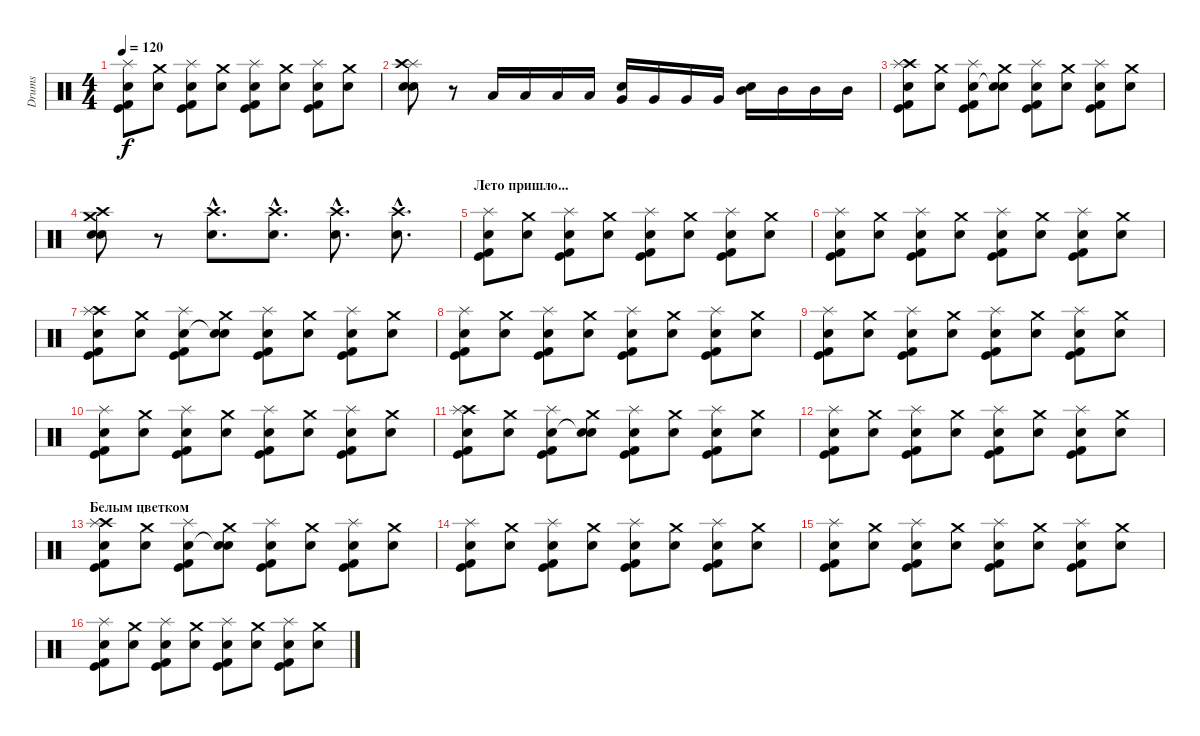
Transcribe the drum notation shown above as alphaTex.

\track ("Drums" "Drums") {instrument percussion}
\staff {score}
\articulation defaults
\ts (4 4)
\tempo 120
\clef neutral
\ks c
("Kick (hit)" "Electric Snare (hit)" "Kick (hit) 2" "Splash (hit)").8{dy f} ("Crash medium (hit)" "Snare (hit) 2").8 ("Kick (hit)" "Electric Snare (hit)" "Kick (hit) 2" "Splash (hit)").8 ("Crash medium (hit)" "Snare (hit) 2").8 ("Kick (hit)" "Electric Snare (hit)" "Kick (hit) 2" "Splash (hit)").8 ("Crash medium (hit)" "Snare (hit) 2").8 ("Kick (hit)" "Electric Snare (hit)" "Kick (hit) 2" "Splash (hit)").8 ("Crash medium (hit)" "Snare (hit) 2").8 |
("Splash (hit)" "Snare (hit) 2" "Electric Snare (hit)" "Crash high (hit)").8 r.8 "Low Floor Tom (hit)".16 "Low Floor Tom (hit)".16 "Low Floor Tom (hit)".16 "Low Floor Tom (hit)".16 ("Snare (hit) 2" "Very Low Tom (hit)").16 "Very Low Tom (hit)".16 "Very Low Tom (hit)".16 "Very Low Tom (hit)".16 ("Electric Snare (hit)" "Mid Tom (hit)").16 "Mid Tom (hit)".16 "Mid Tom (hit)".16 "Mid Tom (hit)".16 |
("Kick (hit)" "Crash high (hit)" "Electric Snare (hit)" "Kick (hit) 2" "Splash (hit)").8 ("Crash medium (hit)" "Snare (hit) 2").8 ("Kick (hit)" "Electric Snare (hit)" "Kick (hit) 2" "Splash (hit)").8 ("Crash medium (hit)" "Snare (hit)"{t} "Snare (hit) 2").8 ("Kick (hit)" "Electric Snare (hit)" "Kick (hit) 2" "Splash (hit)").8 ("Crash medium (hit)" "Snare (hit) 2").8 ("Kick (hit)" "Electric Snare (hit)" "Kick (hit) 2" "Splash (hit)").8 ("Crash medium (hit)" "Snare (hit) 2").8 |
("Crash medium (hit)" "Snare (hit) 2" "Electric Snare (hit)" "Crash high (hit)").8 r.8 ("Electric Snare (hit)"{hac} "Crash high (hit)"{hac}).8{d} ("Electric Snare (hit)"{hac} "Crash high (hit)"{hac}).8{d} ("Electric Snare (hit)"{hac} "Crash high (hit)"{hac}).8{d} ("Electric Snare (hit)"{hac} "Crash high (hit)"{hac}).8{d} |
\section ("" "Лето пришло...")
("Kick (hit)" "Electric Snare (hit)" "Kick (hit) 2" "Splash (hit)").8 ("Crash medium (hit)" "Snare (hit) 2").8 ("Kick (hit)" "Electric Snare (hit)" "Kick (hit) 2" "Splash (hit)").8 ("Crash medium (hit)" "Snare (hit) 2").8 ("Kick (hit)" "Electric Snare (hit)" "Kick (hit) 2" "Splash (hit)").8 ("Crash medium (hit)" "Snare (hit) 2").8 ("Kick (hit)" "Electric Snare (hit)" "Kick (hit) 2" "Splash (hit)").8 ("Crash medium (hit)" "Snare (hit) 2").8 |
("Kick (hit)" "Electric Snare (hit)" "Kick (hit) 2" "Splash (hit)").8 ("Crash medium (hit)" "Snare (hit) 2").8 ("Kick (hit)" "Electric Snare (hit)" "Kick (hit) 2" "Splash (hit)").8 ("Crash medium (hit)" "Snare (hit) 2").8 ("Kick (hit)" "Electric Snare (hit)" "Kick (hit) 2" "Splash (hit)").8 ("Crash medium (hit)" "Snare (hit) 2").8 ("Kick (hit)" "Electric Snare (hit)" "Kick (hit) 2" "Splash (hit)").8 ("Crash medium (hit)" "Snare (hit) 2").8 |
("Kick (hit)" "Crash high (hit)" "Electric Snare (hit)" "Kick (hit) 2" "Splash (hit)").8 ("Crash medium (hit)" "Snare (hit) 2").8 ("Kick (hit)" "Electric Snare (hit)" "Kick (hit) 2" "Splash (hit)").8 ("Crash medium (hit)" "Snare (hit)"{t} "Snare (hit) 2").8 ("Kick (hit)" "Electric Snare (hit)" "Kick (hit) 2" "Splash (hit)").8 ("Crash medium (hit)" "Snare (hit) 2").8 ("Kick (hit)" "Electric Snare (hit)" "Kick (hit) 2" "Splash (hit)").8 ("Crash medium (hit)" "Snare (hit) 2").8 |
("Kick (hit)" "Electric Snare (hit)" "Kick (hit) 2" "Splash (hit)").8 ("Crash medium (hit)" "Snare (hit) 2").8 ("Kick (hit)" "Electric Snare (hit)" "Kick (hit) 2" "Splash (hit)").8 ("Crash medium (hit)" "Snare (hit) 2").8 ("Kick (hit)" "Electric Snare (hit)" "Kick (hit) 2" "Splash (hit)").8 ("Crash medium (hit)" "Snare (hit) 2").8 ("Kick (hit)" "Electric Snare (hit)" "Kick (hit) 2" "Splash (hit)").8 ("Crash medium (hit)" "Snare (hit) 2").8 |
("Kick (hit)" "Electric Snare (hit)" "Kick (hit) 2" "Splash (hit)").8 ("Crash medium (hit)" "Snare (hit) 2").8 ("Kick (hit)" "Electric Snare (hit)" "Kick (hit) 2" "Splash (hit)").8 ("Crash medium (hit)" "Snare (hit) 2").8 ("Kick (hit)" "Electric Snare (hit)" "Kick (hit) 2" "Splash (hit)").8 ("Crash medium (hit)" "Snare (hit) 2").8 ("Kick (hit)" "Electric Snare (hit)" "Kick (hit) 2" "Splash (hit)").8 ("Crash medium (hit)" "Snare (hit) 2").8 |
("Kick (hit)" "Electric Snare (hit)" "Kick (hit) 2" "Splash (hit)").8 ("Crash medium (hit)" "Snare (hit) 2").8 ("Kick (hit)" "Electric Snare (hit)" "Kick (hit) 2" "Splash (hit)").8 ("Crash medium (hit)" "Snare (hit) 2").8 ("Kick (hit)" "Electric Snare (hit)" "Kick (hit) 2" "Splash (hit)").8 ("Crash medium (hit)" "Snare (hit) 2").8 ("Kick (hit)" "Electric Snare (hit)" "Kick (hit) 2" "Splash (hit)").8 ("Crash medium (hit)" "Snare (hit) 2").8 |
("Kick (hit)" "Crash high (hit)" "Electric Snare (hit)" "Kick (hit) 2" "Splash (hit)").8 ("Crash medium (hit)" "Snare (hit) 2").8 ("Kick (hit)" "Electric Snare (hit)" "Kick (hit) 2" "Splash (hit)").8 ("Crash medium (hit)" "Snare (hit)"{t} "Snare (hit) 2").8 ("Kick (hit)" "Electric Snare (hit)" "Kick (hit) 2" "Splash (hit)").8 ("Crash medium (hit)" "Snare (hit) 2").8 ("Kick (hit)" "Electric Snare (hit)" "Kick (hit) 2" "Splash (hit)").8 ("Crash medium (hit)" "Snare (hit) 2").8 |
("Kick (hit)" "Electric Snare (hit)" "Kick (hit) 2" "Splash (hit)").8 ("Crash medium (hit)" "Snare (hit) 2").8 ("Kick (hit)" "Electric Snare (hit)" "Kick (hit) 2" "Splash (hit)").8 ("Crash medium (hit)" "Snare (hit) 2").8 ("Kick (hit)" "Electric Snare (hit)" "Kick (hit) 2" "Splash (hit)").8 ("Crash medium (hit)" "Snare (hit) 2").8 ("Kick (hit)" "Electric Snare (hit)" "Kick (hit) 2" "Splash (hit)").8 ("Crash medium (hit)" "Snare (hit) 2").8 |
\section ("" "Белым цветком")
("Kick (hit)" "Crash high (hit)" "Electric Snare (hit)" "Kick (hit) 2" "Splash (hit)").8 ("Crash medium (hit)" "Snare (hit) 2").8 ("Kick (hit)" "Electric Snare (hit)" "Kick (hit) 2" "Splash (hit)").8 ("Crash medium (hit)" "Snare (hit)"{t} "Snare (hit) 2").8 ("Kick (hit)" "Electric Snare (hit)" "Kick (hit) 2" "Splash (hit)").8 ("Crash medium (hit)" "Snare (hit) 2").8 ("Kick (hit)" "Electric Snare (hit)" "Kick (hit) 2" "Splash (hit)").8 ("Crash medium (hit)" "Snare (hit) 2").8 |
("Kick (hit)" "Electric Snare (hit)" "Kick (hit) 2" "Splash (hit)").8 ("Crash medium (hit)" "Snare (hit) 2").8 ("Kick (hit)" "Electric Snare (hit)" "Kick (hit) 2" "Splash (hit)").8 ("Crash medium (hit)" "Snare (hit) 2").8 ("Kick (hit)" "Electric Snare (hit)" "Kick (hit) 2" "Splash (hit)").8 ("Crash medium (hit)" "Snare (hit) 2").8 ("Kick (hit)" "Electric Snare (hit)" "Kick (hit) 2" "Splash (hit)").8 ("Crash medium (hit)" "Snare (hit) 2").8 |
("Kick (hit)" "Electric Snare (hit)" "Kick (hit) 2" "Splash (hit)").8 ("Crash medium (hit)" "Snare (hit) 2").8 ("Kick (hit)" "Electric Snare (hit)" "Kick (hit) 2" "Splash (hit)").8 ("Crash medium (hit)" "Snare (hit) 2").8 ("Kick (hit)" "Electric Snare (hit)" "Kick (hit) 2" "Splash (hit)").8 ("Crash medium (hit)" "Snare (hit) 2").8 ("Kick (hit)" "Electric Snare (hit)" "Kick (hit) 2" "Splash (hit)").8 ("Crash medium (hit)" "Snare (hit) 2").8 |
("Kick (hit)" "Electric Snare (hit)" "Kick (hit) 2" "Splash (hit)").8 ("Crash medium (hit)" "Snare (hit) 2").8 ("Kick (hit)" "Electric Snare (hit)" "Kick (hit) 2" "Splash (hit)").8 ("Crash medium (hit)" "Snare (hit) 2").8 ("Kick (hit)" "Electric Snare (hit)" "Kick (hit) 2" "Splash (hit)").8 ("Crash medium (hit)" "Snare (hit) 2").8 ("Kick (hit)" "Electric Snare (hit)" "Kick (hit) 2" "Splash (hit)").8 ("Crash medium (hit)" "Snare (hit) 2").8
